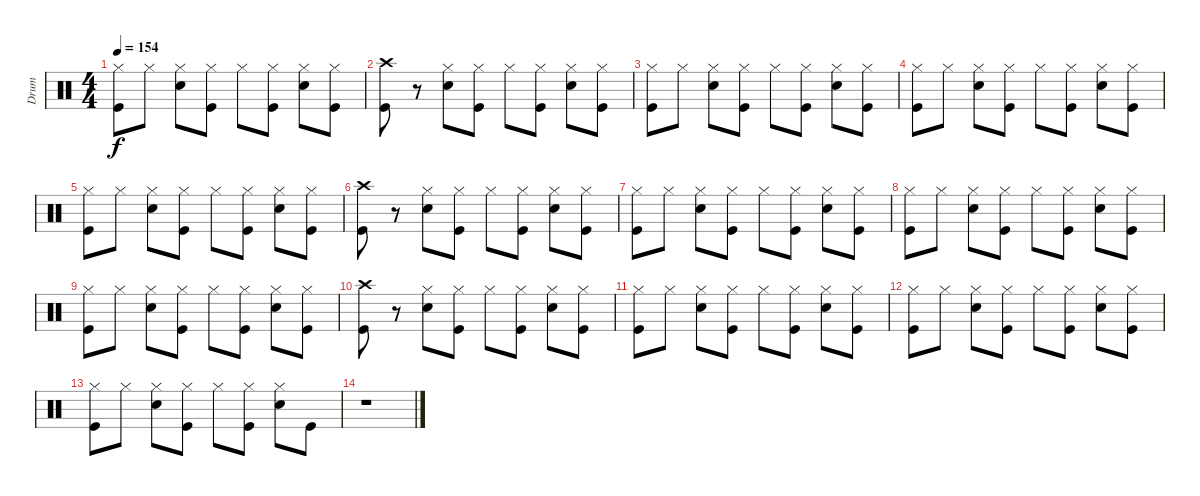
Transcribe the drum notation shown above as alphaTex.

\track ("Drum" "Drum") {instrument percussion}
\staff {score}
\articulation defaults
\ts (4 4)
\tempo 154
\clef neutral
\ks c
("Kick (hit)" "Hi-Hat (closed)").8{dy f} "Hi-Hat (closed)".8 ("Snare (hit) 2" "Hi-Hat (closed)").8 ("Kick (hit)" "Hi-Hat (closed)").8 "Hi-Hat (closed)".8 ("Kick (hit)" "Hi-Hat (closed)").8 ("Snare (hit) 2" "Hi-Hat (closed)").8 ("Kick (hit)" "Hi-Hat (closed)").8 |
("Kick (hit)" "Crash high (hit)").8 r.8 ("Snare (hit) 2" "Hi-Hat (closed)").8 ("Kick (hit)" "Hi-Hat (closed)").8 "Hi-Hat (closed)".8 ("Kick (hit)" "Hi-Hat (closed)").8 ("Snare (hit) 2" "Hi-Hat (closed)").8 ("Kick (hit)" "Hi-Hat (closed)").8 |
("Kick (hit)" "Hi-Hat (closed)").8 "Hi-Hat (closed)".8 ("Snare (hit) 2" "Hi-Hat (closed)").8 ("Kick (hit)" "Hi-Hat (closed)").8 "Hi-Hat (closed)".8 ("Kick (hit)" "Hi-Hat (closed)").8 ("Snare (hit) 2" "Hi-Hat (closed)").8 ("Kick (hit)" "Hi-Hat (closed)").8 |
("Kick (hit)" "Hi-Hat (closed)").8 "Hi-Hat (closed)".8 ("Snare (hit) 2" "Hi-Hat (closed)").8 ("Kick (hit)" "Hi-Hat (closed)").8 "Hi-Hat (closed)".8 ("Kick (hit)" "Hi-Hat (closed)").8 ("Snare (hit) 2" "Hi-Hat (closed)").8 ("Kick (hit)" "Hi-Hat (closed)").8 |
("Kick (hit)" "Hi-Hat (closed)").8 "Hi-Hat (closed)".8 ("Snare (hit) 2" "Hi-Hat (closed)").8 ("Kick (hit)" "Hi-Hat (closed)").8 "Hi-Hat (closed)".8 ("Kick (hit)" "Hi-Hat (closed)").8 ("Snare (hit) 2" "Hi-Hat (closed)").8 ("Kick (hit)" "Hi-Hat (closed)").8 |
("Kick (hit)" "Crash high (hit)").8 r.8 ("Snare (hit) 2" "Hi-Hat (closed)").8 ("Kick (hit)" "Hi-Hat (closed)").8 "Hi-Hat (closed)".8 ("Kick (hit)" "Hi-Hat (closed)").8 ("Snare (hit) 2" "Hi-Hat (closed)").8 ("Kick (hit)" "Hi-Hat (closed)").8 |
("Kick (hit)" "Hi-Hat (closed)").8 "Hi-Hat (closed)".8 ("Snare (hit) 2" "Hi-Hat (closed)").8 ("Kick (hit)" "Hi-Hat (closed)").8 "Hi-Hat (closed)".8 ("Kick (hit)" "Hi-Hat (closed)").8 ("Snare (hit) 2" "Hi-Hat (closed)").8 ("Kick (hit)" "Hi-Hat (closed)").8 |
("Kick (hit)" "Hi-Hat (closed)").8 "Hi-Hat (closed)".8 ("Snare (hit) 2" "Hi-Hat (closed)").8 ("Kick (hit)" "Hi-Hat (closed)").8 "Hi-Hat (closed)".8 ("Kick (hit)" "Hi-Hat (closed)").8 ("Snare (hit) 2" "Hi-Hat (closed)").8 ("Kick (hit)" "Hi-Hat (closed)").8 |
("Kick (hit)" "Hi-Hat (closed)").8 "Hi-Hat (closed)".8 ("Snare (hit) 2" "Hi-Hat (closed)").8 ("Kick (hit)" "Hi-Hat (closed)").8 "Hi-Hat (closed)".8 ("Kick (hit)" "Hi-Hat (closed)").8 ("Snare (hit) 2" "Hi-Hat (closed)").8 ("Kick (hit)" "Hi-Hat (closed)").8 |
("Kick (hit)" "Crash high (hit)").8 r.8 ("Snare (hit) 2" "Hi-Hat (closed)").8 ("Kick (hit)" "Hi-Hat (closed)").8 "Hi-Hat (closed)".8 ("Kick (hit)" "Hi-Hat (closed)").8 ("Snare (hit) 2" "Hi-Hat (closed)").8 ("Kick (hit)" "Hi-Hat (closed)").8 |
("Kick (hit)" "Hi-Hat (closed)").8 "Hi-Hat (closed)".8 ("Snare (hit) 2" "Hi-Hat (closed)").8 ("Kick (hit)" "Hi-Hat (closed)").8 "Hi-Hat (closed)".8 ("Kick (hit)" "Hi-Hat (closed)").8 ("Snare (hit) 2" "Hi-Hat (closed)").8 ("Kick (hit)" "Hi-Hat (closed)").8 |
("Kick (hit)" "Hi-Hat (closed)").8 "Hi-Hat (closed)".8 ("Snare (hit) 2" "Hi-Hat (closed)").8 ("Kick (hit)" "Hi-Hat (closed)").8 "Hi-Hat (closed)".8 ("Kick (hit)" "Hi-Hat (closed)").8 ("Snare (hit) 2" "Hi-Hat (closed)").8 ("Kick (hit)" "Hi-Hat (closed)").8 |
("Kick (hit)" "Hi-Hat (closed)").8 "Hi-Hat (closed)".8 ("Snare (hit) 2" "Hi-Hat (closed)").8 ("Kick (hit)" "Hi-Hat (closed)").8 "Hi-Hat (closed)".8 ("Kick (hit)" "Hi-Hat (closed)").8 ("Snare (hit) 2" "Hi-Hat (closed)").8 "Kick (hit)".8 |
r.1
